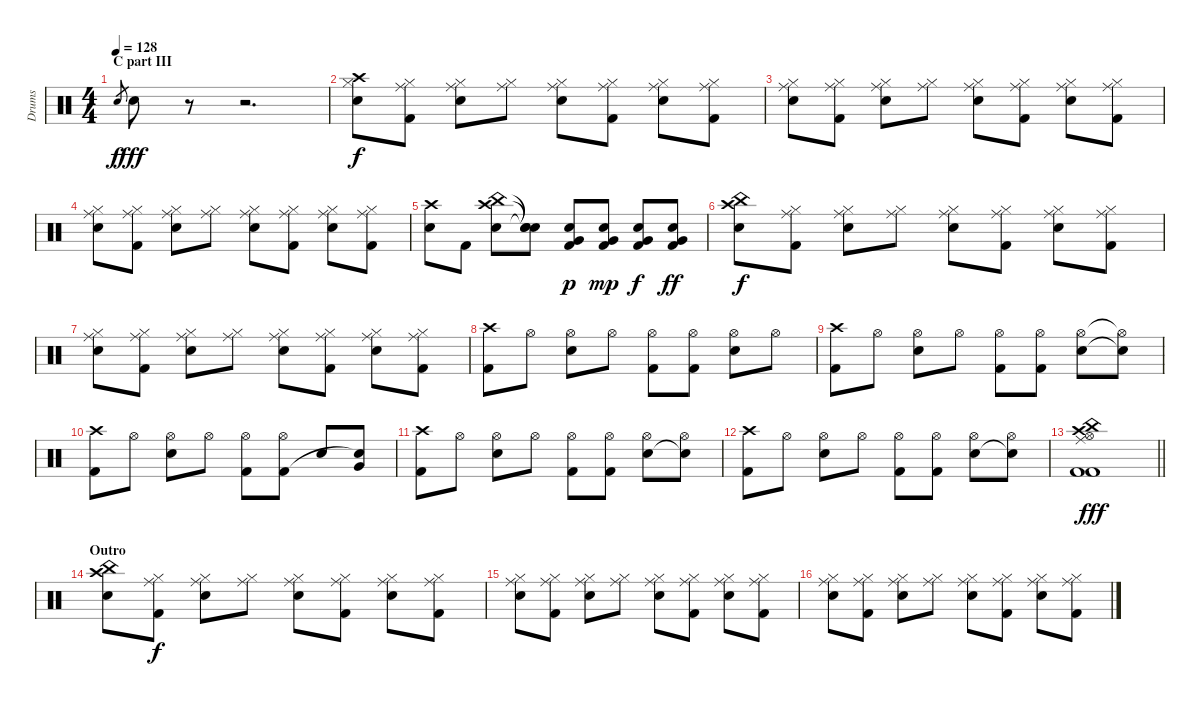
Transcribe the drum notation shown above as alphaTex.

\track ("Drums" "Drums") {instrument percussion}
\staff {score}
\articulation defaults
\ts (4 4)
\section ("" "C part III")
\tempo 128
\clef neutral
\ks c "Snare (hit) 2".8{gr dy f} "Snare (hit) 2".8{dy fff}
r.8 r.2{d} |
("Crash high (hit)" "Hi-Hat (closed)" "Snare (hit) 2").8{dy f} ("Ride (middle)" "Hi-Hat (closed)" "Kick (hit) 2").8 ("Ride (middle)" "Hi-Hat (closed)" "Snare (hit) 2").8 ("Ride (middle)" "Hi-Hat (closed)").8 ("Ride (middle)" "Hi-Hat (closed)" "Snare (hit) 2").8 ("Ride (middle)" "Hi-Hat (closed)" "Kick (hit) 2").8 ("Ride (middle)" "Hi-Hat (closed)" "Snare (hit) 2").8 ("Ride (middle)" "Hi-Hat (closed)" "Kick (hit) 2").8 |
("Ride (middle)" "Hi-Hat (closed)" "Snare (hit) 2").8 ("Ride (middle)" "Hi-Hat (closed)" "Kick (hit) 2").8 ("Ride (middle)" "Hi-Hat (closed)" "Snare (hit) 2").8 ("Ride (middle)" "Hi-Hat (closed)").8 ("Ride (middle)" "Hi-Hat (closed)" "Snare (hit) 2").8 ("Ride (middle)" "Hi-Hat (closed)" "Kick (hit) 2").8 ("Ride (middle)" "Hi-Hat (closed)" "Snare (hit) 2").8 ("Ride (middle)" "Hi-Hat (closed)" "Kick (hit) 2").8 |
("Ride (middle)" "Hi-Hat (closed)" "Snare (hit) 2").8 ("Ride (middle)" "Hi-Hat (closed)" "Kick (hit) 2").8 ("Ride (middle)" "Hi-Hat (closed)" "Snare (hit) 2").8 ("Ride (middle)" "Hi-Hat (closed)").8 ("Ride (middle)" "Hi-Hat (closed)" "Snare (hit) 2").8 ("Ride (middle)" "Hi-Hat (closed)" "Kick (hit) 2").8 ("Ride (middle)" "Hi-Hat (closed)" "Snare (hit) 2").8 ("Ride (middle)" "Hi-Hat (closed)" "Kick (hit) 2").8 |
("Crash high (hit)" "Snare (hit) 2").8 "Kick (hit) 2".8 ("China (hit)" "Crash high (hit)" "Snare (hit) 2").8 ("Snare (hit)"{t} "Snare (hit)"{t} "Snare (hit)"{t}).8 ("Very Low Tom (hit)" "Snare (hit) 2" "Kick (hit) 2").8{dy p} ("Very Low Tom (hit)" "Snare (hit) 2" "Kick (hit) 2").8{dy mp} ("Very Low Tom (hit)" "Snare (hit) 2" "Kick (hit) 2").8{dy f} ("Very Low Tom (hit)" "Snare (hit) 2" "Kick (hit) 2").8{dy ff} |
("Crash high (hit)" "China (hit)" "Snare (hit) 2").8{dy f} ("Ride (middle)" "Hi-Hat (closed)" "Kick (hit) 2").8 ("Ride (middle)" "Hi-Hat (closed)" "Snare (hit) 2").8 ("Ride (middle)" "Hi-Hat (closed)").8 ("Ride (middle)" "Hi-Hat (closed)" "Snare (hit) 2").8 ("Ride (middle)" "Hi-Hat (closed)" "Kick (hit) 2").8 ("Ride (middle)" "Hi-Hat (closed)" "Snare (hit) 2").8 ("Ride (middle)" "Hi-Hat (closed)" "Kick (hit) 2").8 |
("Ride (middle)" "Hi-Hat (closed)" "Snare (hit) 2").8 ("Ride (middle)" "Hi-Hat (closed)" "Kick (hit) 2").8 ("Ride (middle)" "Hi-Hat (closed)" "Snare (hit) 2").8 ("Ride (middle)" "Hi-Hat (closed)").8 ("Ride (middle)" "Hi-Hat (closed)" "Snare (hit) 2").8 ("Ride (middle)" "Hi-Hat (closed)" "Kick (hit) 2").8 ("Ride (middle)" "Hi-Hat (closed)" "Snare (hit) 2").8 ("Ride (middle)" "Hi-Hat (closed)" "Kick (hit) 2").8 |
("Crash high (hit)" "Kick (hit) 2").8 "Hi-Hat (open)".8 ("Hi-Hat (open)" "Snare (hit) 2").8 "Hi-Hat (open)".8 ("Hi-Hat (open)" "Kick (hit) 2").8 ("Hi-Hat (open)" "Kick (hit) 2").8 ("Hi-Hat (open)" "Snare (hit) 2").8 "Hi-Hat (open)".8 |
("Crash high (hit)" "Kick (hit) 2").8 "Hi-Hat (open)".8 ("Hi-Hat (open)" "Snare (hit) 2").8 "Hi-Hat (open)".8 ("Hi-Hat (open)" "Kick (hit) 2").8 ("Hi-Hat (open)" "Kick (hit) 2").8 ("Hi-Hat (open)" "Snare (hit) 2").8 ("Hi-Hat (open)"{t} "Snare (hit)"{t}).8 |
("Crash high (hit)" "Kick (hit) 2").8 "Hi-Hat (open)".8 ("Hi-Hat (open)" "Snare (hit) 2").8 "Hi-Hat (open)".8 ("Hi-Hat (open)" "Kick (hit) 2").8 ("Hi-Hat (open)" "Kick (hit) 2").8 "Snare (hit) 2".8 ("Very Low Tom (hit)" "Snare (hit)"{t}).8 |
("Crash high (hit)" "Kick (hit) 2").8 "Hi-Hat (open)".8 ("Hi-Hat (open)" "Snare (hit) 2").8 "Hi-Hat (open)".8 ("Hi-Hat (open)" "Kick (hit) 2").8 ("Hi-Hat (open)" "Kick (hit) 2").8 ("Hi-Hat (open)" "Snare (hit) 2").8 ("Hi-Hat (open)" "Snare (hit)"{t}).8 |
("Crash high (hit)" "Kick (hit) 2").8 "Hi-Hat (open)".8 ("Hi-Hat (open)" "Snare (hit) 2").8 "Hi-Hat (open)".8 ("Hi-Hat (open)" "Kick (hit) 2").8 ("Hi-Hat (open)" "Kick (hit) 2").8 ("Hi-Hat (open)" "Snare (hit) 2").8 ("Hi-Hat (open)" "Snare (hit)"{t}).8 |
\barLineRight lightlight
("Crash high (hit)" "China (hit)" "Hi-Hat (open)" "Ride (middle)" "Kick (hit) 2" "Kick (hit) 2").1{dy fff} |
\section ("" "Outro")
("Crash high (hit)" "China (hit)" "Snare (hit) 2").8 ("Ride (middle)" "Hi-Hat (closed)" "Kick (hit) 2").8{dy f} ("Ride (middle)" "Hi-Hat (closed)" "Snare (hit) 2").8 ("Ride (middle)" "Hi-Hat (closed)").8 ("Ride (middle)" "Hi-Hat (closed)" "Snare (hit) 2").8 ("Ride (middle)" "Hi-Hat (closed)" "Kick (hit) 2").8 ("Ride (middle)" "Hi-Hat (closed)" "Snare (hit) 2").8 ("Ride (middle)" "Hi-Hat (closed)" "Kick (hit) 2").8 |
("Ride (middle)" "Hi-Hat (closed)" "Snare (hit) 2").8 ("Ride (middle)" "Hi-Hat (closed)" "Kick (hit) 2").8 ("Ride (middle)" "Hi-Hat (closed)" "Snare (hit) 2").8 ("Ride (middle)" "Hi-Hat (closed)").8 ("Ride (middle)" "Hi-Hat (closed)" "Snare (hit) 2").8 ("Ride (middle)" "Hi-Hat (closed)" "Kick (hit) 2").8 ("Ride (middle)" "Hi-Hat (closed)" "Snare (hit) 2").8 ("Ride (middle)" "Hi-Hat (closed)" "Kick (hit) 2").8 |
("Ride (middle)" "Hi-Hat (closed)" "Snare (hit) 2").8 ("Ride (middle)" "Hi-Hat (closed)" "Kick (hit) 2").8 ("Ride (middle)" "Hi-Hat (closed)" "Snare (hit) 2").8 ("Ride (middle)" "Hi-Hat (closed)").8 ("Ride (middle)" "Hi-Hat (closed)" "Snare (hit) 2").8 ("Ride (middle)" "Hi-Hat (closed)" "Kick (hit) 2").8 ("Ride (middle)" "Hi-Hat (closed)" "Snare (hit) 2").8 ("Ride (middle)" "Hi-Hat (closed)" "Kick (hit) 2").8
